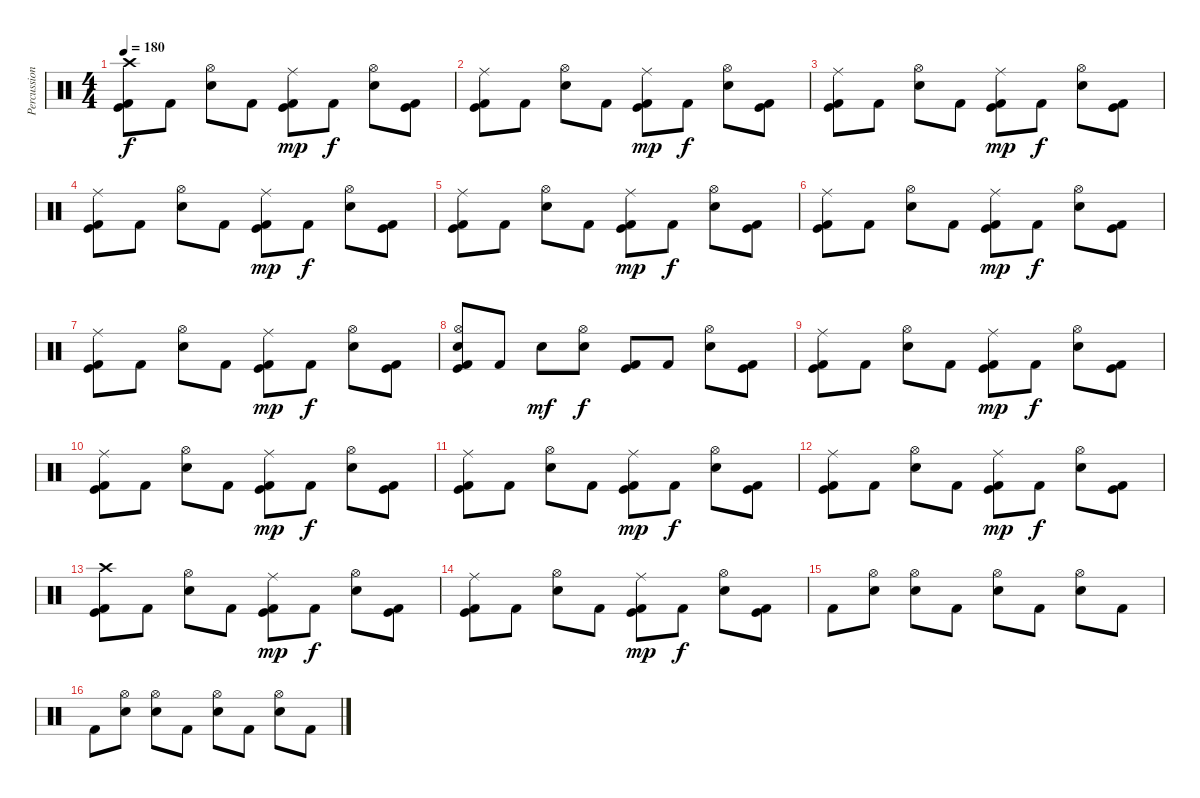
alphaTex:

\track ("Percussion" "Percussion") {instrument percussion}
\staff {score}
\articulation defaults
\ts (4 4)
\tempo 180
\clef neutral
\ks c
("Crash high (hit)" "Kick (hit)" "Kick (hit) 2").8{dy f} "Kick (hit) 2".8 ("Hi-Hat (open)" "Snare (hit) 2").8 "Kick (hit) 2".8 ("Ride (middle)" "Kick (hit)" "Kick (hit) 2").8{dy mp} "Kick (hit) 2".8{dy f} ("Hi-Hat (open)" "Snare (hit) 2").8 ("Kick (hit)" "Kick (hit) 2").8 |
("Ride (middle)" "Kick (hit)" "Kick (hit) 2").8 "Kick (hit) 2".8 ("Hi-Hat (open)" "Snare (hit) 2").8 "Kick (hit) 2".8 ("Ride (middle)" "Kick (hit)" "Kick (hit) 2").8{dy mp} "Kick (hit) 2".8{dy f} ("Hi-Hat (open)" "Snare (hit) 2").8 ("Kick (hit)" "Kick (hit) 2").8 |
("Ride (middle)" "Kick (hit)" "Kick (hit) 2").8 "Kick (hit) 2".8 ("Hi-Hat (open)" "Snare (hit) 2").8 "Kick (hit) 2".8 ("Ride (middle)" "Kick (hit)" "Kick (hit) 2").8{dy mp} "Kick (hit) 2".8{dy f} ("Hi-Hat (open)" "Snare (hit) 2").8 ("Kick (hit)" "Kick (hit) 2").8 |
("Ride (middle)" "Kick (hit)" "Kick (hit) 2").8 "Kick (hit) 2".8 ("Hi-Hat (open)" "Snare (hit) 2").8 "Kick (hit) 2".8 ("Ride (middle)" "Kick (hit)" "Kick (hit) 2").8{dy mp} "Kick (hit) 2".8{dy f} ("Hi-Hat (open)" "Snare (hit) 2").8 ("Kick (hit)" "Kick (hit) 2").8 |
("Ride (middle)" "Kick (hit)" "Kick (hit) 2").8 "Kick (hit) 2".8 ("Hi-Hat (open)" "Snare (hit) 2").8 "Kick (hit) 2".8 ("Ride (middle)" "Kick (hit)" "Kick (hit) 2").8{dy mp} "Kick (hit) 2".8{dy f} ("Hi-Hat (open)" "Snare (hit) 2").8 ("Kick (hit)" "Kick (hit) 2").8 |
("Ride (middle)" "Kick (hit)" "Kick (hit) 2").8 "Kick (hit) 2".8 ("Hi-Hat (open)" "Snare (hit) 2").8 "Kick (hit) 2".8 ("Ride (middle)" "Kick (hit)" "Kick (hit) 2").8{dy mp} "Kick (hit) 2".8{dy f} ("Hi-Hat (open)" "Snare (hit) 2").8 ("Kick (hit)" "Kick (hit) 2").8 |
("Ride (middle)" "Kick (hit)" "Kick (hit) 2").8 "Kick (hit) 2".8 ("Hi-Hat (open)" "Snare (hit) 2").8 "Kick (hit) 2".8 ("Ride (middle)" "Kick (hit)" "Kick (hit) 2").8{dy mp} "Kick (hit) 2".8{dy f} ("Hi-Hat (open)" "Snare (hit) 2").8 ("Kick (hit)" "Kick (hit) 2").8 |
("Hi-Hat (open)" "Snare (hit) 2" "Kick (hit)" "Kick (hit) 2").8 "Kick (hit) 2".8 "Snare (hit) 2".8{dy mf} ("Hi-Hat (open)" "Snare (hit) 2").8{dy f} ("Kick (hit)" "Kick (hit) 2").8 "Kick (hit) 2".8 ("Hi-Hat (open)" "Snare (hit) 2").8 ("Kick (hit)" "Kick (hit) 2").8 |
("Ride (middle)" "Kick (hit)" "Kick (hit) 2").8 "Kick (hit) 2".8 ("Hi-Hat (open)" "Snare (hit) 2").8 "Kick (hit) 2".8 ("Ride (middle)" "Kick (hit)" "Kick (hit) 2").8{dy mp} "Kick (hit) 2".8{dy f} ("Hi-Hat (open)" "Snare (hit) 2").8 ("Kick (hit)" "Kick (hit) 2").8 |
("Ride (middle)" "Kick (hit)" "Kick (hit) 2").8 "Kick (hit) 2".8 ("Hi-Hat (open)" "Snare (hit) 2").8 "Kick (hit) 2".8 ("Ride (middle)" "Kick (hit)" "Kick (hit) 2").8{dy mp} "Kick (hit) 2".8{dy f} ("Hi-Hat (open)" "Snare (hit) 2").8 ("Kick (hit)" "Kick (hit) 2").8 |
("Ride (middle)" "Kick (hit)" "Kick (hit) 2").8 "Kick (hit) 2".8 ("Hi-Hat (open)" "Snare (hit) 2").8 "Kick (hit) 2".8 ("Ride (middle)" "Kick (hit)" "Kick (hit) 2").8{dy mp} "Kick (hit) 2".8{dy f} ("Hi-Hat (open)" "Snare (hit) 2").8 ("Kick (hit)" "Kick (hit) 2").8 |
("Ride (middle)" "Kick (hit)" "Kick (hit) 2").8 "Kick (hit) 2".8 ("Hi-Hat (open)" "Snare (hit) 2").8 "Kick (hit) 2".8 ("Ride (middle)" "Kick (hit)" "Kick (hit) 2").8{dy mp} "Kick (hit) 2".8{dy f} ("Hi-Hat (open)" "Snare (hit) 2").8 ("Kick (hit)" "Kick (hit) 2").8 |
("Crash high (hit)" "Kick (hit)" "Kick (hit) 2").8 "Kick (hit) 2".8 ("Hi-Hat (open)" "Snare (hit) 2").8 "Kick (hit) 2".8 ("Ride (middle)" "Kick (hit)" "Kick (hit) 2").8{dy mp} "Kick (hit) 2".8{dy f} ("Hi-Hat (open)" "Snare (hit) 2").8 ("Kick (hit)" "Kick (hit) 2").8 |
("Ride (middle)" "Kick (hit)" "Kick (hit) 2").8 "Kick (hit) 2".8 ("Hi-Hat (open)" "Snare (hit) 2").8 "Kick (hit) 2".8 ("Ride (middle)" "Kick (hit)" "Kick (hit) 2").8{dy mp} "Kick (hit) 2".8{dy f} ("Hi-Hat (open)" "Snare (hit) 2").8 ("Kick (hit)" "Kick (hit) 2").8 |
"Kick (hit) 2".8 ("Hi-Hat (open)" "Snare (hit) 2").8 ("Hi-Hat (open)" "Snare (hit) 2").8 "Kick (hit) 2".8 ("Hi-Hat (open)" "Snare (hit) 2").8 "Kick (hit) 2".8 ("Hi-Hat (open)" "Snare (hit) 2").8 "Kick (hit) 2".8 |
"Kick (hit) 2".8 ("Hi-Hat (open)" "Snare (hit) 2").8 ("Hi-Hat (open)" "Snare (hit) 2").8 "Kick (hit) 2".8 ("Hi-Hat (open)" "Snare (hit) 2").8 "Kick (hit) 2".8 ("Hi-Hat (open)" "Snare (hit) 2").8 "Kick (hit) 2".8
